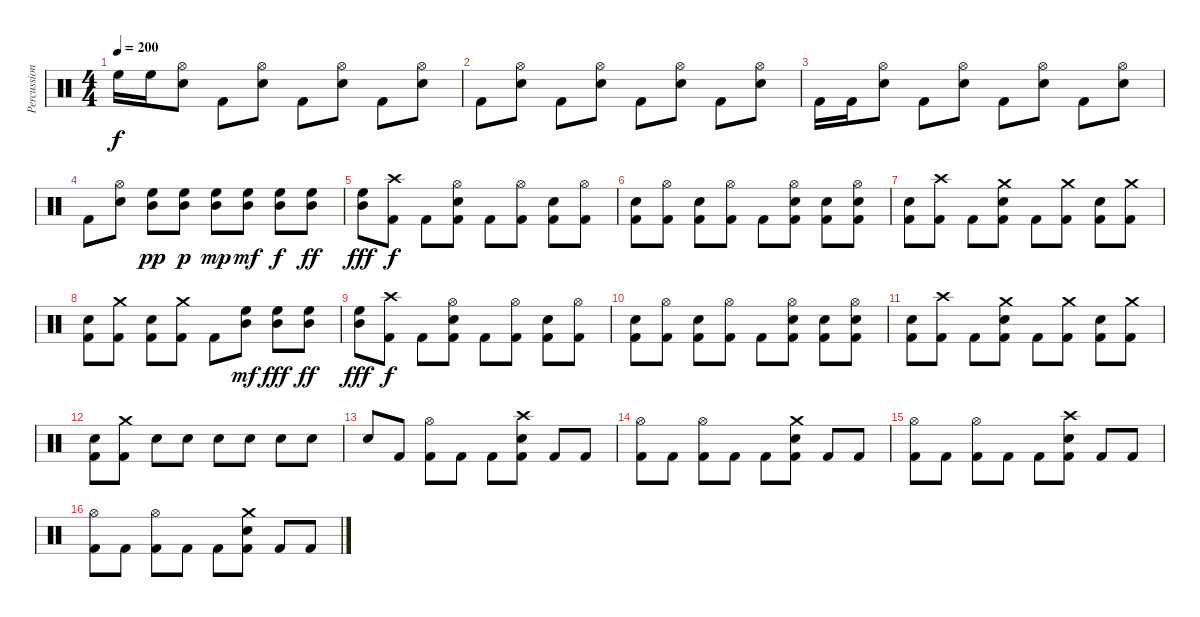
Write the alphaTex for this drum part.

\track ("Percussion" "Percussion") {instrument percussion}
\staff {score}
\articulation defaults
\ts (4 4)
\tempo 200
\clef neutral
\ks c "High Floor Tom (hit)".16{dy f} "High Floor Tom (hit)".16
("Hi-Hat (open)" "Snare (hit) 2").8 "Kick (hit) 2".8 ("Hi-Hat (open)" "Snare (hit) 2").8 "Kick (hit) 2".8 ("Hi-Hat (open)" "Snare (hit) 2").8 "Kick (hit) 2".8 ("Hi-Hat (open)" "Snare (hit) 2").8 |
"Kick (hit) 2".8 ("Hi-Hat (open)" "Snare (hit) 2").8 "Kick (hit) 2".8 ("Hi-Hat (open)" "Snare (hit) 2").8 "Kick (hit) 2".8 ("Hi-Hat (open)" "Snare (hit) 2").8 "Kick (hit) 2".8 ("Hi-Hat (open)" "Snare (hit) 2").8 |
"Kick (hit) 2".16 "Kick (hit) 2".16 ("Hi-Hat (open)" "Snare (hit) 2").8 "Kick (hit) 2".8 ("Hi-Hat (open)" "Snare (hit) 2").8 "Kick (hit) 2".8 ("Hi-Hat (open)" "Snare (hit) 2").8 "Kick (hit) 2".8 ("Hi-Hat (open)" "Snare (hit) 2").8 |
"Kick (hit) 2".8 ("Hi-Hat (open)" "Snare (hit) 2").8 ("Mid Tom (hit)" "High Floor Tom (hit)").8{dy pp} ("Mid Tom (hit)" "High Floor Tom (hit)").8{dy p} ("Mid Tom (hit)" "High Floor Tom (hit)").8{dy mp} ("Mid Tom (hit)" "High Floor Tom (hit)").8{dy mf} ("Mid Tom (hit)" "High Floor Tom (hit)").8{dy f} ("Mid Tom (hit)" "High Floor Tom (hit)").8{dy ff} |
("Mid Tom (hit)" "High Floor Tom (hit)").8{dy fff} ("Crash high (hit)" "Kick (hit) 2").8{dy f} "Kick (hit) 2".8 ("Hi-Hat (open)" "Snare (hit) 2" "Kick (hit) 2").8 "Kick (hit) 2".8 ("Hi-Hat (open)" "Kick (hit) 2").8 ("Snare (hit) 2" "Kick (hit) 2").8 ("Hi-Hat (open)" "Kick (hit) 2").8 |
("Snare (hit) 2" "Kick (hit) 2").8 ("Hi-Hat (open)" "Kick (hit) 2").8 ("Snare (hit) 2" "Kick (hit) 2").8 ("Hi-Hat (open)" "Kick (hit) 2").8 "Kick (hit) 2".8 ("Hi-Hat (open)" "Snare (hit) 2" "Kick (hit) 2").8 ("Snare (hit) 2" "Kick (hit) 2").8 ("Hi-Hat (open)" "Snare (hit) 2" "Kick (hit) 2").8 |
("Snare (hit) 2" "Kick (hit) 2").8 ("Crash high (hit)" "Kick (hit) 2").8 "Kick (hit) 2".8 ("Crash medium (hit)" "Snare (hit) 2" "Kick (hit) 2").8 "Kick (hit) 2".8 ("Crash medium (hit)" "Kick (hit) 2").8 ("Snare (hit) 2" "Kick (hit) 2").8 ("Crash medium (hit)" "Kick (hit) 2").8 |
("Snare (hit) 2" "Kick (hit) 2").8 ("Crash medium (hit)" "Kick (hit) 2").8 ("Snare (hit) 2" "Kick (hit) 2").8 ("Crash medium (hit)" "Kick (hit) 2").8 "Kick (hit) 2".8 ("Mid Tom (hit)" "High Floor Tom (hit)").8{dy mf} ("Mid Tom (hit)" "High Floor Tom (hit)").8{dy fff} ("Mid Tom (hit)" "High Floor Tom (hit)").8{dy ff} |
("Mid Tom (hit)" "High Floor Tom (hit)").8{dy fff} ("Crash high (hit)" "Kick (hit) 2").8{dy f} "Kick (hit) 2".8 ("Hi-Hat (open)" "Snare (hit) 2" "Kick (hit) 2").8 "Kick (hit) 2".8 ("Hi-Hat (open)" "Kick (hit) 2").8 ("Snare (hit) 2" "Kick (hit) 2").8 ("Hi-Hat (open)" "Kick (hit) 2").8 |
("Snare (hit) 2" "Kick (hit) 2").8 ("Hi-Hat (open)" "Kick (hit) 2").8 ("Snare (hit) 2" "Kick (hit) 2").8 ("Hi-Hat (open)" "Kick (hit) 2").8 "Kick (hit) 2".8 ("Hi-Hat (open)" "Snare (hit) 2" "Kick (hit) 2").8 ("Snare (hit) 2" "Kick (hit) 2").8 ("Hi-Hat (open)" "Snare (hit) 2" "Kick (hit) 2").8 |
("Snare (hit) 2" "Kick (hit) 2").8 ("Crash high (hit)" "Kick (hit) 2").8 "Kick (hit) 2".8 ("Crash medium (hit)" "Snare (hit) 2" "Kick (hit) 2").8 "Kick (hit) 2".8 ("Crash medium (hit)" "Kick (hit) 2").8 ("Snare (hit) 2" "Kick (hit) 2").8 ("Crash medium (hit)" "Kick (hit) 2").8 |
("Snare (hit) 2" "Kick (hit) 2").8 ("Crash medium (hit)" "Kick (hit) 2").8 "Snare (hit) 2".8 "Snare (hit) 2".8 "Snare (hit) 2".8 "Snare (hit) 2".8 "Snare (hit) 2".8 "Snare (hit) 2".8 |
"Snare (hit) 2".8 "Kick (hit) 2".8 ("Hi-Hat (open)" "Kick (hit) 2").8 "Kick (hit) 2".8 "Kick (hit) 2".8 ("Crash high (hit)" "Snare (hit) 2" "Kick (hit) 2").8 "Kick (hit) 2".8 "Kick (hit) 2".8 |
("Hi-Hat (open)" "Kick (hit) 2").8 "Kick (hit) 2".8 ("Hi-Hat (open)" "Kick (hit) 2").8 "Kick (hit) 2".8 "Kick (hit) 2".8 ("Crash medium (hit)" "Snare (hit) 2" "Kick (hit) 2").8 "Kick (hit) 2".8 "Kick (hit) 2".8 |
("Hi-Hat (open)" "Kick (hit) 2").8 "Kick (hit) 2".8 ("Hi-Hat (open)" "Kick (hit) 2").8 "Kick (hit) 2".8 "Kick (hit) 2".8 ("Crash high (hit)" "Snare (hit) 2" "Kick (hit) 2").8 "Kick (hit) 2".8 "Kick (hit) 2".8 |
("Hi-Hat (open)" "Kick (hit) 2").8 "Kick (hit) 2".8 ("Hi-Hat (open)" "Kick (hit) 2").8 "Kick (hit) 2".8 "Kick (hit) 2".8 ("Crash medium (hit)" "Snare (hit) 2" "Kick (hit) 2").8 "Kick (hit) 2".8 "Kick (hit) 2".8
